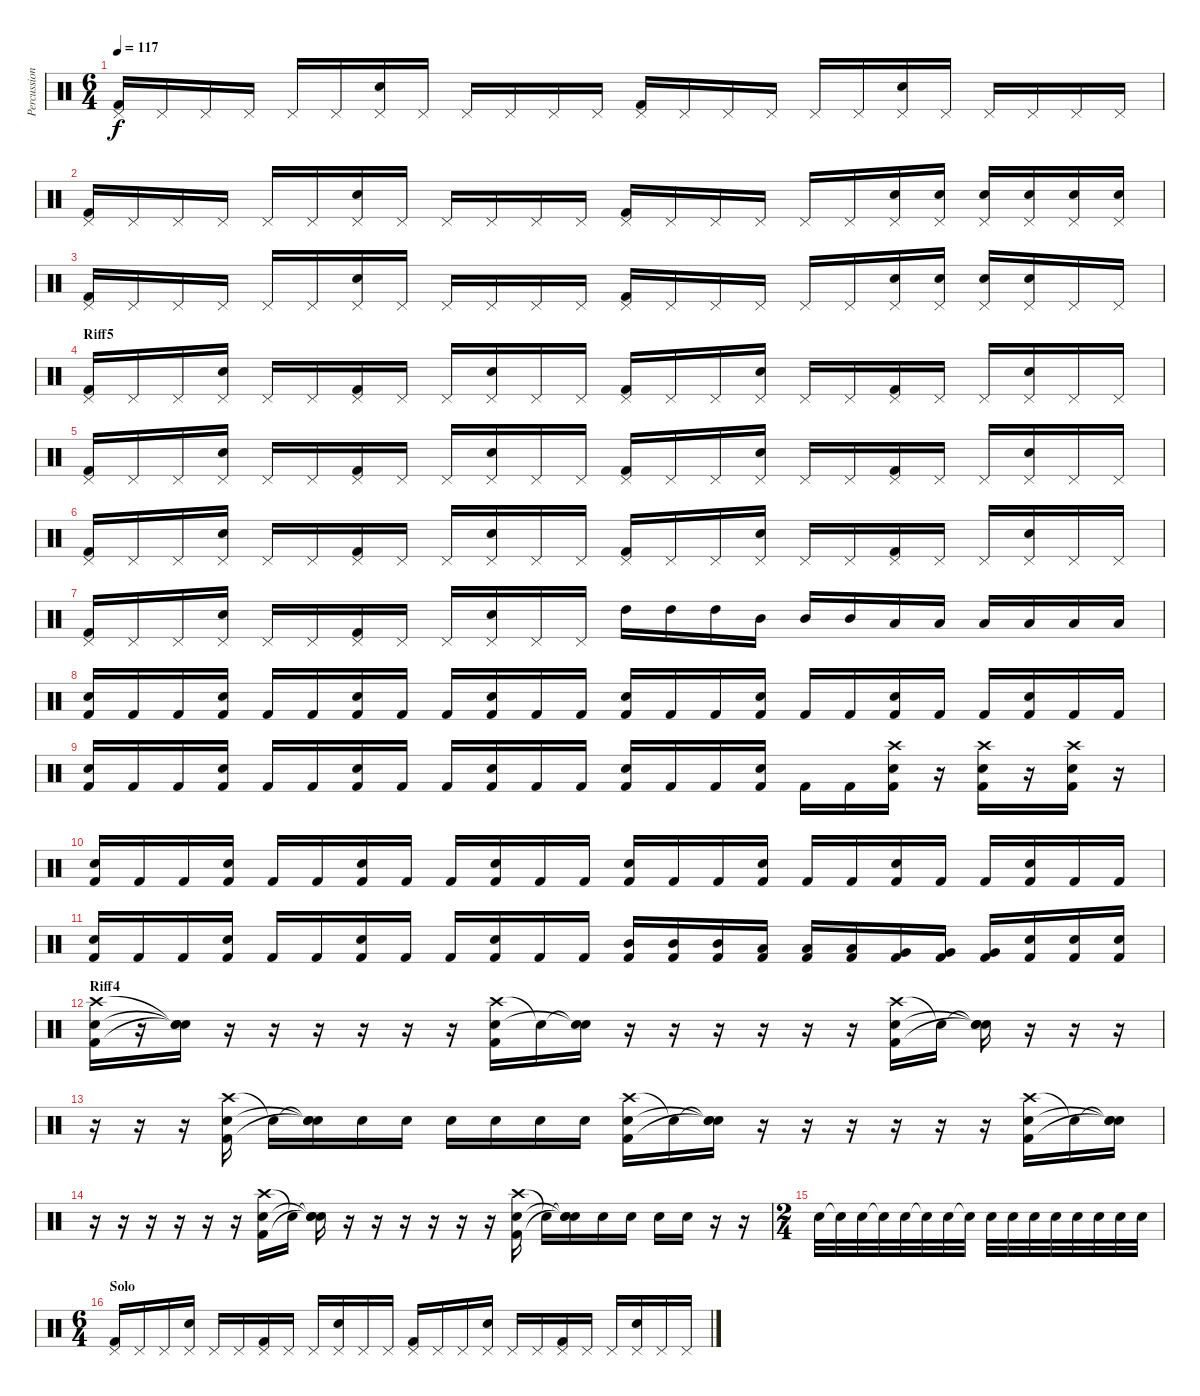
\track ("Percussions" "Percussion") {instrument percussion}
\staff {score}
\articulation defaults
\ts (6 4)
\tempo 117
\clef neutral
\ks c
("Pedal Hi-Hat (hit)" "Kick (hit) 2").16{dy f} "Pedal Hi-Hat (hit)".16 "Pedal Hi-Hat (hit)".16 "Pedal Hi-Hat (hit)".16 "Pedal Hi-Hat (hit)".16 "Pedal Hi-Hat (hit)".16 ("Pedal Hi-Hat (hit)" "Electric Snare (hit)").16 "Pedal Hi-Hat (hit)".16 "Pedal Hi-Hat (hit)".16 "Pedal Hi-Hat (hit)".16 "Pedal Hi-Hat (hit)".16 "Pedal Hi-Hat (hit)".16 ("Pedal Hi-Hat (hit)" "Kick (hit) 2").16 "Pedal Hi-Hat (hit)".16 "Pedal Hi-Hat (hit)".16 "Pedal Hi-Hat (hit)".16 "Pedal Hi-Hat (hit)".16 "Pedal Hi-Hat (hit)".16 ("Pedal Hi-Hat (hit)" "Electric Snare (hit)").16 "Pedal Hi-Hat (hit)".16 "Pedal Hi-Hat (hit)".16 "Pedal Hi-Hat (hit)".16 "Pedal Hi-Hat (hit)".16 "Pedal Hi-Hat (hit)".16 |
("Pedal Hi-Hat (hit)" "Kick (hit) 2").16 "Pedal Hi-Hat (hit)".16 "Pedal Hi-Hat (hit)".16 "Pedal Hi-Hat (hit)".16 "Pedal Hi-Hat (hit)".16 "Pedal Hi-Hat (hit)".16 ("Pedal Hi-Hat (hit)" "Electric Snare (hit)").16 "Pedal Hi-Hat (hit)".16 "Pedal Hi-Hat (hit)".16 "Pedal Hi-Hat (hit)".16 "Pedal Hi-Hat (hit)".16 "Pedal Hi-Hat (hit)".16 ("Pedal Hi-Hat (hit)" "Kick (hit) 2").16 "Pedal Hi-Hat (hit)".16 "Pedal Hi-Hat (hit)".16 "Pedal Hi-Hat (hit)".16 "Pedal Hi-Hat (hit)".16 "Pedal Hi-Hat (hit)".16 ("Pedal Hi-Hat (hit)" "Electric Snare (hit)").16 ("Pedal Hi-Hat (hit)" "Electric Snare (hit)").16 ("Pedal Hi-Hat (hit)" "Electric Snare (hit)").16 ("Pedal Hi-Hat (hit)" "Electric Snare (hit)").16 ("Pedal Hi-Hat (hit)" "Electric Snare (hit)").16 ("Pedal Hi-Hat (hit)" "Electric Snare (hit)").16 |
("Pedal Hi-Hat (hit)" "Kick (hit) 2").16 "Pedal Hi-Hat (hit)".16 "Pedal Hi-Hat (hit)".16 "Pedal Hi-Hat (hit)".16 "Pedal Hi-Hat (hit)".16 "Pedal Hi-Hat (hit)".16 ("Pedal Hi-Hat (hit)" "Electric Snare (hit)").16 "Pedal Hi-Hat (hit)".16 "Pedal Hi-Hat (hit)".16 "Pedal Hi-Hat (hit)".16 "Pedal Hi-Hat (hit)".16 "Pedal Hi-Hat (hit)".16 ("Pedal Hi-Hat (hit)" "Kick (hit) 2").16 "Pedal Hi-Hat (hit)".16 "Pedal Hi-Hat (hit)".16 "Pedal Hi-Hat (hit)".16 "Pedal Hi-Hat (hit)".16 "Pedal Hi-Hat (hit)".16 ("Pedal Hi-Hat (hit)" "Electric Snare (hit)").16 ("Pedal Hi-Hat (hit)" "Electric Snare (hit)").16 ("Pedal Hi-Hat (hit)" "Electric Snare (hit)").16 ("Pedal Hi-Hat (hit)" "Electric Snare (hit)").16 "Pedal Hi-Hat (hit)".16 "Pedal Hi-Hat (hit)".16 |
\section ("" "Riff5")
("Pedal Hi-Hat (hit)" "Kick (hit) 2").16 "Pedal Hi-Hat (hit)".16 "Pedal Hi-Hat (hit)".16 ("Pedal Hi-Hat (hit)" "Electric Snare (hit)").16 "Pedal Hi-Hat (hit)".16 "Pedal Hi-Hat (hit)".16 ("Pedal Hi-Hat (hit)" "Kick (hit) 2").16 "Pedal Hi-Hat (hit)".16 "Pedal Hi-Hat (hit)".16 ("Pedal Hi-Hat (hit)" "Electric Snare (hit)").16 "Pedal Hi-Hat (hit)".16 "Pedal Hi-Hat (hit)".16 ("Pedal Hi-Hat (hit)" "Kick (hit) 2").16 "Pedal Hi-Hat (hit)".16 "Pedal Hi-Hat (hit)".16 ("Pedal Hi-Hat (hit)" "Electric Snare (hit)").16 "Pedal Hi-Hat (hit)".16 "Pedal Hi-Hat (hit)".16 ("Pedal Hi-Hat (hit)" "Kick (hit) 2").16 "Pedal Hi-Hat (hit)".16 "Pedal Hi-Hat (hit)".16 ("Pedal Hi-Hat (hit)" "Electric Snare (hit)").16 "Pedal Hi-Hat (hit)".16 "Pedal Hi-Hat (hit)".16 |
("Pedal Hi-Hat (hit)" "Kick (hit) 2").16 "Pedal Hi-Hat (hit)".16 "Pedal Hi-Hat (hit)".16 ("Pedal Hi-Hat (hit)" "Electric Snare (hit)").16 "Pedal Hi-Hat (hit)".16 "Pedal Hi-Hat (hit)".16 ("Pedal Hi-Hat (hit)" "Kick (hit) 2").16 "Pedal Hi-Hat (hit)".16 "Pedal Hi-Hat (hit)".16 ("Pedal Hi-Hat (hit)" "Electric Snare (hit)").16 "Pedal Hi-Hat (hit)".16 "Pedal Hi-Hat (hit)".16 ("Pedal Hi-Hat (hit)" "Kick (hit) 2").16 "Pedal Hi-Hat (hit)".16 "Pedal Hi-Hat (hit)".16 ("Pedal Hi-Hat (hit)" "Electric Snare (hit)").16 "Pedal Hi-Hat (hit)".16 "Pedal Hi-Hat (hit)".16 ("Pedal Hi-Hat (hit)" "Kick (hit) 2").16 "Pedal Hi-Hat (hit)".16 "Pedal Hi-Hat (hit)".16 ("Pedal Hi-Hat (hit)" "Electric Snare (hit)").16 "Pedal Hi-Hat (hit)".16 "Pedal Hi-Hat (hit)".16 |
("Pedal Hi-Hat (hit)" "Kick (hit) 2").16 "Pedal Hi-Hat (hit)".16 "Pedal Hi-Hat (hit)".16 ("Pedal Hi-Hat (hit)" "Electric Snare (hit)").16 "Pedal Hi-Hat (hit)".16 "Pedal Hi-Hat (hit)".16 ("Pedal Hi-Hat (hit)" "Kick (hit) 2").16 "Pedal Hi-Hat (hit)".16 "Pedal Hi-Hat (hit)".16 ("Pedal Hi-Hat (hit)" "Electric Snare (hit)").16 "Pedal Hi-Hat (hit)".16 "Pedal Hi-Hat (hit)".16 ("Pedal Hi-Hat (hit)" "Kick (hit) 2").16 "Pedal Hi-Hat (hit)".16 "Pedal Hi-Hat (hit)".16 ("Pedal Hi-Hat (hit)" "Electric Snare (hit)").16 "Pedal Hi-Hat (hit)".16 "Pedal Hi-Hat (hit)".16 ("Pedal Hi-Hat (hit)" "Kick (hit) 2").16 "Pedal Hi-Hat (hit)".16 "Pedal Hi-Hat (hit)".16 ("Pedal Hi-Hat (hit)" "Electric Snare (hit)").16 "Pedal Hi-Hat (hit)".16 "Pedal Hi-Hat (hit)".16 |
("Pedal Hi-Hat (hit)" "Kick (hit) 2").16 "Pedal Hi-Hat (hit)".16 "Pedal Hi-Hat (hit)".16 ("Pedal Hi-Hat (hit)" "Electric Snare (hit)").16 "Pedal Hi-Hat (hit)".16 "Pedal Hi-Hat (hit)".16 ("Pedal Hi-Hat (hit)" "Kick (hit) 2").16 "Pedal Hi-Hat (hit)".16 "Pedal Hi-Hat (hit)".16 ("Pedal Hi-Hat (hit)" "Electric Snare (hit)").16 "Pedal Hi-Hat (hit)".16 "Pedal Hi-Hat (hit)".16 "High Tom (hit)".16 "High Tom (hit)".16 "High Tom (hit)".16 "Mid Tom (hit)".16 "Mid Tom (hit)".16 "Mid Tom (hit)".16 "Low Tom (hit)".16 "Low Tom (hit)".16 "Low Tom (hit)".16 "Low Floor Tom (hit)".16 "Low Floor Tom (hit)".16 "Low Floor Tom (hit)".16 |
("Electric Snare (hit)" "Kick (hit) 2").16 "Kick (hit) 2".16 "Kick (hit) 2".16 ("Electric Snare (hit)" "Kick (hit) 2").16 "Kick (hit) 2".16 "Kick (hit) 2".16 ("Electric Snare (hit)" "Kick (hit) 2").16 "Kick (hit) 2".16 "Kick (hit) 2".16 ("Electric Snare (hit)" "Kick (hit) 2").16 "Kick (hit) 2".16 "Kick (hit) 2".16 ("Electric Snare (hit)" "Kick (hit) 2").16 "Kick (hit) 2".16 "Kick (hit) 2".16 ("Electric Snare (hit)" "Kick (hit) 2").16 "Kick (hit) 2".16 "Kick (hit) 2".16 ("Electric Snare (hit)" "Kick (hit) 2").16 "Kick (hit) 2".16 "Kick (hit) 2".16 ("Electric Snare (hit)" "Kick (hit) 2").16 "Kick (hit) 2".16 "Kick (hit) 2".16 |
("Electric Snare (hit)" "Kick (hit) 2").16 "Kick (hit) 2".16 "Kick (hit) 2".16 ("Electric Snare (hit)" "Kick (hit) 2").16 "Kick (hit) 2".16 "Kick (hit) 2".16 ("Electric Snare (hit)" "Kick (hit) 2").16 "Kick (hit) 2".16 "Kick (hit) 2".16 ("Electric Snare (hit)" "Kick (hit) 2").16 "Kick (hit) 2".16 "Kick (hit) 2".16 ("Electric Snare (hit)" "Kick (hit) 2").16 "Kick (hit) 2".16 "Kick (hit) 2".16 ("Electric Snare (hit)" "Kick (hit) 2").16 "Kick (hit) 2".16 "Kick (hit) 2".16 ("Crash high (hit)" "Electric Snare (hit)" "Kick (hit) 2").16 r.16 ("Crash high (hit)" "Electric Snare (hit)" "Kick (hit) 2").16 r.16 ("Crash high (hit)" "Electric Snare (hit)" "Kick (hit) 2").16 r.16 |
("Electric Snare (hit)" "Kick (hit) 2").16 "Kick (hit) 2".16 "Kick (hit) 2".16 ("Electric Snare (hit)" "Kick (hit) 2").16 "Kick (hit) 2".16 "Kick (hit) 2".16 ("Electric Snare (hit)" "Kick (hit) 2").16 "Kick (hit) 2".16 "Kick (hit) 2".16 ("Electric Snare (hit)" "Kick (hit) 2").16 "Kick (hit) 2".16 "Kick (hit) 2".16 ("Electric Snare (hit)" "Kick (hit) 2").16 "Kick (hit) 2".16 "Kick (hit) 2".16 ("Electric Snare (hit)" "Kick (hit) 2").16 "Kick (hit) 2".16 "Kick (hit) 2".16 ("Electric Snare (hit)" "Kick (hit) 2").16 "Kick (hit) 2".16 "Kick (hit) 2".16 ("Electric Snare (hit)" "Kick (hit) 2").16 "Kick (hit) 2".16 "Kick (hit) 2".16 |
("Electric Snare (hit)" "Kick (hit) 2").16 "Kick (hit) 2".16 "Kick (hit) 2".16 ("Electric Snare (hit)" "Kick (hit) 2").16 "Kick (hit) 2".16 "Kick (hit) 2".16 ("Electric Snare (hit)" "Kick (hit) 2").16 "Kick (hit) 2".16 "Kick (hit) 2".16 ("Electric Snare (hit)" "Kick (hit) 2").16 "Kick (hit) 2".16 "Kick (hit) 2".16 ("Mid Tom (hit)" "Kick (hit) 2").16 ("Mid Tom (hit)" "Kick (hit) 2").16 ("Mid Tom (hit)" "Kick (hit) 2").16 ("Low Tom (hit)" "Kick (hit) 2").16 ("Low Tom (hit)" "Kick (hit) 2").16 ("Low Tom (hit)" "Kick (hit) 2").16 ("Very Low Tom (hit)" "Kick (hit) 2").16 ("Very Low Tom (hit)" "Kick (hit) 2").16 ("Very Low Tom (hit)" "Kick (hit) 2").16 ("Snare (hit) 2" "Kick (hit) 2").16 ("Snare (hit) 2" "Kick (hit) 2").16 ("Snare (hit) 2" "Kick (hit) 2").16 |
\section ("" "Riff4")
("Crash high (hit)" "Electric Snare (hit)" "Kick (hit) 2").16 r.16 ("Snare (hit)"{t} "Snare (hit)"{t} "Snare (hit)"{t}).16 r.16 r.16 r.16 r.16 r.16 r.16 ("Crash high (hit)" "Electric Snare (hit)" "Kick (hit) 2").16 "Snare (hit)"{t}.16 ("Snare (hit)"{t} "Snare (hit)"{t}).16 r.16 r.16 r.16 r.16 r.16 r.16 ("Crash high (hit)" "Electric Snare (hit)" "Kick (hit) 2").16 "Snare (hit)"{t}.16 ("Snare (hit)"{t} "Snare (hit)"{t} "Snare (hit)"{t}).16 r.16 r.16 r.16 |
r.16 r.16 r.16 ("Crash high (hit)" "Electric Snare (hit)" "Kick (hit) 2").16 "Snare (hit)"{t}.16 ("Snare (hit)"{t} "Snare (hit)"{t} "Snare (hit)"{t}).16 "Electric Snare (hit)".16 "Electric Snare (hit)".16 "Electric Snare (hit)".16 "Electric Snare (hit)".16 "Electric Snare (hit)".16 "Electric Snare (hit)".16 ("Crash high (hit)" "Electric Snare (hit)" "Kick (hit) 2").16 "Snare (hit)"{t}.16 ("Snare (hit)"{t} "Snare (hit)"{t} "Snare (hit)"{t}).16 r.16 r.16 r.16 r.16 r.16 r.16 ("Crash high (hit)" "Electric Snare (hit)" "Kick (hit) 2").16 "Snare (hit)"{t}.16 ("Snare (hit)"{t} "Snare (hit)"{t} "Snare (hit)"{t}).16 |
r.16 r.16 r.16 r.16 r.16 r.16 ("Crash high (hit)" "Electric Snare (hit)" "Kick (hit) 2").16 "Snare (hit)"{t}.16 ("Snare (hit)"{t} "Snare (hit)"{t} "Snare (hit)"{t}).16 r.16 r.16 r.16 r.16 r.16 r.16 ("Crash high (hit)" "Electric Snare (hit)" "Kick (hit) 2").16 "Snare (hit)"{t}.16 ("Snare (hit)"{t} "Snare (hit)"{t} "Snare (hit)"{t}).16 "Electric Snare (hit)".16 "Electric Snare (hit)".16 "Electric Snare (hit)".16 "Electric Snare (hit)".16 r.16 r.16 |
\ts (2 4)
"Electric Snare (hit)".32 "Electric Snare (hit)"{t}.32 "Electric Snare (hit)".32 "Electric Snare (hit)"{t}.32 "Electric Snare (hit)".32 "Electric Snare (hit)"{t}.32 "Electric Snare (hit)".32 "Electric Snare (hit)"{t}.32 "Electric Snare (hit)".32 "Electric Snare (hit)".32 "Electric Snare (hit)".32 "Electric Snare (hit)".32 "Electric Snare (hit)".32 "Electric Snare (hit)".32 "Electric Snare (hit)".32 "Electric Snare (hit)".32 |
\ts (6 4)
\section ("" "Solo")
("Pedal Hi-Hat (hit)" "Kick (hit) 2").16 "Pedal Hi-Hat (hit)".16 "Pedal Hi-Hat (hit)".16 ("Pedal Hi-Hat (hit)" "Electric Snare (hit)").16 "Pedal Hi-Hat (hit)".16 "Pedal Hi-Hat (hit)".16 ("Pedal Hi-Hat (hit)" "Kick (hit) 2").16 "Pedal Hi-Hat (hit)".16 "Pedal Hi-Hat (hit)".16 ("Pedal Hi-Hat (hit)" "Electric Snare (hit)").16 "Pedal Hi-Hat (hit)".16 "Pedal Hi-Hat (hit)".16 ("Pedal Hi-Hat (hit)" "Kick (hit) 2").16 "Pedal Hi-Hat (hit)".16 "Pedal Hi-Hat (hit)".16 ("Pedal Hi-Hat (hit)" "Electric Snare (hit)").16 "Pedal Hi-Hat (hit)".16 "Pedal Hi-Hat (hit)".16 ("Pedal Hi-Hat (hit)" "Kick (hit) 2").16 "Pedal Hi-Hat (hit)".16 "Pedal Hi-Hat (hit)".16 ("Pedal Hi-Hat (hit)" "Electric Snare (hit)").16 "Pedal Hi-Hat (hit)".16 "Pedal Hi-Hat (hit)".16
